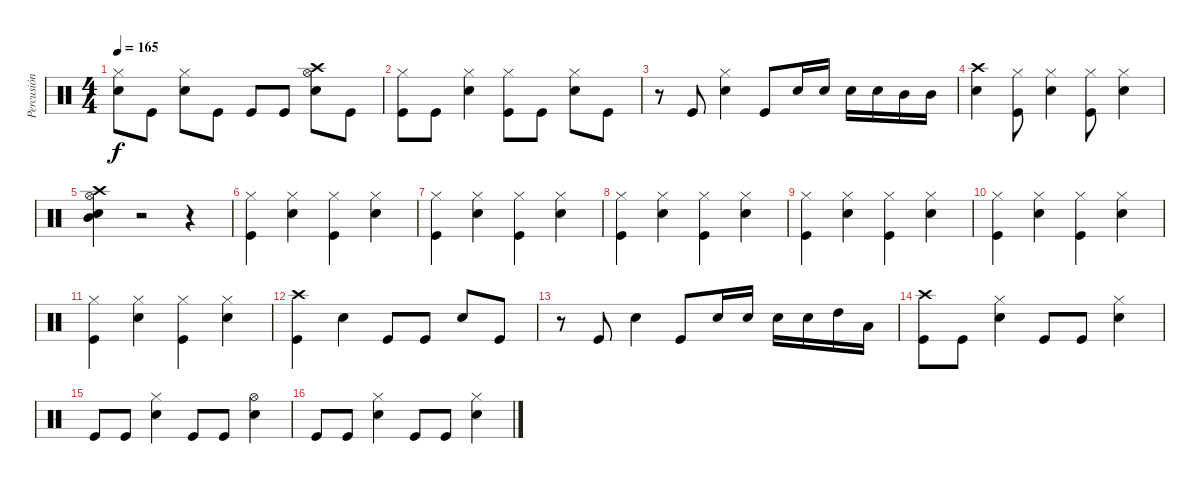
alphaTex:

\track ("Percusión" "Percusión") {instrument percussion}
\staff {score}
\articulation defaults
\ts (4 4)
\tempo 165
\clef neutral
\ks c
("Hi-Hat (closed)" "Electric Snare (hit)").8{dy f} "Kick (hit)".8 ("Hi-Hat (closed)" "Electric Snare (hit)").8 "Kick (hit)".8 "Kick (hit)".8 "Kick (hit)".8 ("Crash high (hit)" "Hi-Hat (open)" "Electric Snare (hit)").8 "Kick (hit)".8 |
("Hi-Hat (closed)" "Kick (hit)").8 "Kick (hit)".8 ("Hi-Hat (closed)" "Electric Snare (hit)").4 ("Hi-Hat (closed)" "Kick (hit)").8 "Kick (hit)".8 ("Hi-Hat (closed)" "Electric Snare (hit)").8 "Kick (hit)".8 |
r.8 "Kick (hit)".8 ("Hi-Hat (closed)" "Electric Snare (hit)").4 "Kick (hit)".8 "Electric Snare (hit)".16 "Electric Snare (hit)".16 "Electric Snare (hit)".16 "Electric Snare (hit)".16 "Mid Tom (hit)".16 "Mid Tom (hit)".16 |
("Crash high (hit)" "Electric Snare (hit)").4 ("Kick (hit)" "Hi-Hat (closed)").8 ("Electric Snare (hit)" "Hi-Hat (closed)").4 ("Hi-Hat (closed)" "Kick (hit)").8 ("Hi-Hat (closed)" "Electric Snare (hit)").4 |
("Hi-Hat (open)" "Crash high (hit)" "Electric Snare (hit)" "Mid Tom (hit)").4 r.2 r.4 |
("Hi-Hat (closed)" "Kick (hit)").4 ("Hi-Hat (closed)" "Electric Snare (hit)").4 ("Hi-Hat (closed)" "Kick (hit)").4 ("Hi-Hat (closed)" "Electric Snare (hit)").4 |
("Hi-Hat (closed)" "Kick (hit)").4 ("Electric Snare (hit)" "Hi-Hat (closed)").4 ("Kick (hit)" "Hi-Hat (closed)").4 ("Electric Snare (hit)" "Hi-Hat (closed)").4 |
("Kick (hit)" "Hi-Hat (closed)").4 ("Electric Snare (hit)" "Hi-Hat (closed)").4 ("Kick (hit)" "Hi-Hat (closed)").4 ("Electric Snare (hit)" "Hi-Hat (closed)").4 |
("Kick (hit)" "Hi-Hat (closed)").4 ("Electric Snare (hit)" "Hi-Hat (closed)").4 ("Kick (hit)" "Hi-Hat (closed)").4 ("Electric Snare (hit)" "Hi-Hat (closed)").4 |
("Kick (hit)" "Hi-Hat (closed)").4 ("Electric Snare (hit)" "Hi-Hat (closed)").4 ("Kick (hit)" "Hi-Hat (closed)").4 ("Electric Snare (hit)" "Hi-Hat (closed)").4 |
("Kick (hit)" "Hi-Hat (closed)").4 ("Electric Snare (hit)" "Hi-Hat (closed)").4 ("Kick (hit)" "Hi-Hat (closed)").4 ("Electric Snare (hit)" "Hi-Hat (closed)").4 |
("Crash high (hit)" "Kick (hit)").4 "Electric Snare (hit)".4 "Kick (hit)".8 "Kick (hit)".8 "Electric Snare (hit)".8 "Kick (hit)".8 |
r.8 "Kick (hit)".8 "Electric Snare (hit)".4 "Kick (hit)".8 "Electric Snare (hit)".16 "Electric Snare (hit)".16 "Electric Snare (hit)".16 "Electric Snare (hit)".16 "High Tom (hit)".16 "Low Tom (hit)".16 |
("Crash high (hit)" "Kick (hit)").8 "Kick (hit)".8 ("Electric Snare (hit)" "Hi-Hat (closed)").4 "Kick (hit)".8 "Kick (hit)".8 ("Hi-Hat (closed)" "Electric Snare (hit)").4 |
"Kick (hit)".8 "Kick (hit)".8 ("Hi-Hat (closed)" "Electric Snare (hit)").4 "Kick (hit)".8 "Kick (hit)".8 ("Hi-Hat (open)" "Electric Snare (hit)").4 |
"Kick (hit)".8 "Kick (hit)".8 ("Electric Snare (hit)" "Hi-Hat (closed)").4 "Kick (hit)".8 "Kick (hit)".8 ("Electric Snare (hit)" "Hi-Hat (closed)").4
